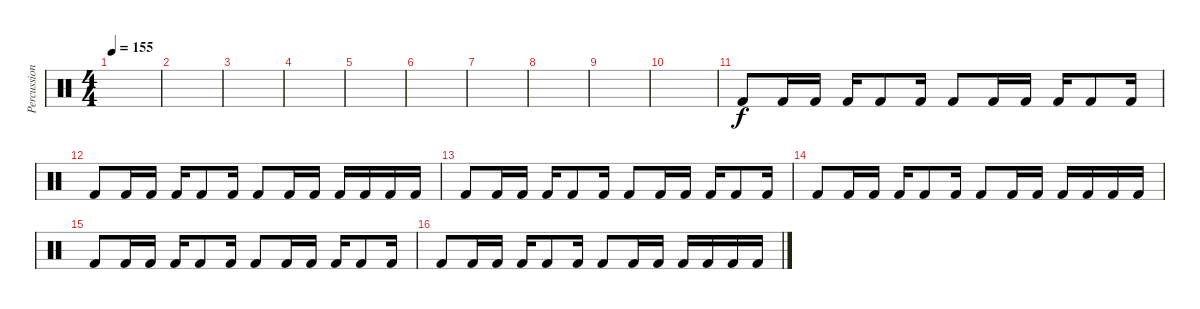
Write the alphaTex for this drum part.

\track ("Percussion" "Percussion") {instrument percussion}
\staff {score}
\articulation defaults
\ts (4 4)
\tempo 155
\clef neutral
\ks c
|
|
|
|
|
|
|
|
|
|
"Kick (hit) 2".8 "Kick (hit) 2".16 "Kick (hit) 2".16 "Kick (hit) 2".16 "Kick (hit) 2".8 "Kick (hit) 2".16 "Kick (hit) 2".8 "Kick (hit) 2".16 "Kick (hit) 2".16 "Kick (hit) 2".16 "Kick (hit) 2".8 "Kick (hit) 2".16 |
"Kick (hit) 2".8 "Kick (hit) 2".16 "Kick (hit) 2".16 "Kick (hit) 2".16 "Kick (hit) 2".8 "Kick (hit) 2".16 "Kick (hit) 2".8 "Kick (hit) 2".16 "Kick (hit) 2".16 "Kick (hit) 2".16 "Kick (hit) 2".16 "Kick (hit) 2".16 "Kick (hit) 2".16 |
"Kick (hit) 2".8 "Kick (hit) 2".16 "Kick (hit) 2".16 "Kick (hit) 2".16 "Kick (hit) 2".8 "Kick (hit) 2".16 "Kick (hit) 2".8 "Kick (hit) 2".16 "Kick (hit) 2".16 "Kick (hit) 2".16 "Kick (hit) 2".8 "Kick (hit) 2".16 |
"Kick (hit) 2".8 "Kick (hit) 2".16 "Kick (hit) 2".16 "Kick (hit) 2".16 "Kick (hit) 2".8 "Kick (hit) 2".16 "Kick (hit) 2".8 "Kick (hit) 2".16 "Kick (hit) 2".16 "Kick (hit) 2".16 "Kick (hit) 2".16 "Kick (hit) 2".16 "Kick (hit) 2".16 |
"Kick (hit) 2".8 "Kick (hit) 2".16 "Kick (hit) 2".16 "Kick (hit) 2".16 "Kick (hit) 2".8 "Kick (hit) 2".16 "Kick (hit) 2".8 "Kick (hit) 2".16 "Kick (hit) 2".16 "Kick (hit) 2".16 "Kick (hit) 2".8 "Kick (hit) 2".16 |
"Kick (hit) 2".8 "Kick (hit) 2".16 "Kick (hit) 2".16 "Kick (hit) 2".16 "Kick (hit) 2".8 "Kick (hit) 2".16 "Kick (hit) 2".8 "Kick (hit) 2".16 "Kick (hit) 2".16 "Kick (hit) 2".16 "Kick (hit) 2".16 "Kick (hit) 2".16 "Kick (hit) 2".16
